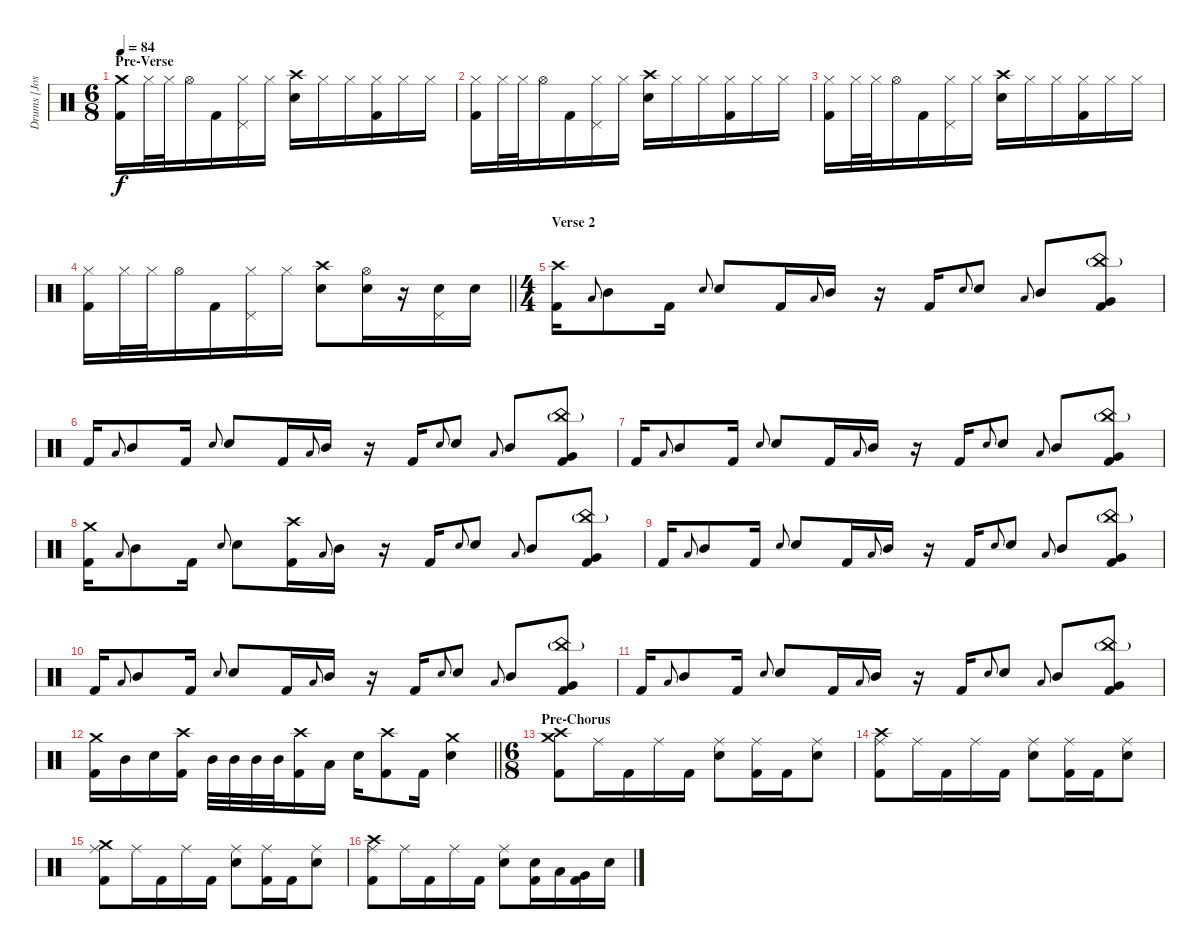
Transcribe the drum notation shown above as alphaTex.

\track ("Drums [Josh Freese]" "Drums [Jos") {instrument percussion}
\staff {score}
\articulation defaults
\ts (6 8)
\section ("" "Pre-Verse")
\tempo 84
\clef neutral
\ks c
("Crash medium (hit)" "Kick (hit) 2").16{dy f} "Hi-Hat (closed)".32 "Hi-Hat (closed)".32 "Hi-Hat (open)".16 "Kick (hit) 2".16 ("Pedal Hi-Hat (hit)" "Hi-Hat (closed)").16 "Hi-Hat (closed)".16 ("Crash high (hit)" "Electric Snare (hit)").16 "Hi-Hat (closed)".16 "Hi-Hat (closed)".16 ("Hi-Hat (closed)" "Kick (hit) 2").16 "Hi-Hat (closed)".16 "Hi-Hat (closed)".16 |
("Hi-Hat (closed)" "Kick (hit) 2").16 "Hi-Hat (closed)".32 "Hi-Hat (closed)".32 "Hi-Hat (open)".16 "Kick (hit) 2".16 ("Pedal Hi-Hat (hit)" "Hi-Hat (closed)").16 "Hi-Hat (closed)".16 ("Crash high (hit)" "Electric Snare (hit)").16 "Hi-Hat (closed)".16 "Hi-Hat (closed)".16 ("Hi-Hat (closed)" "Kick (hit) 2").16 "Hi-Hat (closed)".16 "Hi-Hat (closed)".16 |
("Hi-Hat (closed)" "Kick (hit) 2").16 "Hi-Hat (closed)".32 "Hi-Hat (closed)".32 "Hi-Hat (open)".16 "Kick (hit) 2".16 ("Pedal Hi-Hat (hit)" "Hi-Hat (closed)").16 "Hi-Hat (closed)".16 ("Crash high (hit)" "Electric Snare (hit)").16 "Hi-Hat (closed)".16 "Hi-Hat (closed)".16 ("Hi-Hat (closed)" "Kick (hit) 2").16 "Hi-Hat (closed)".16 "Hi-Hat (closed)".16 |
\barLineRight lightlight
("Hi-Hat (closed)" "Kick (hit) 2").16 "Hi-Hat (closed)".32 "Hi-Hat (closed)".32 "Hi-Hat (open)".16 "Kick (hit) 2".16 ("Pedal Hi-Hat (hit)" "Hi-Hat (closed)").16 "Hi-Hat (closed)".16 ("Crash high (hit)" "Electric Snare (hit)").8 ("Hi-Hat (open)" "Electric Snare (hit)").16 r.16 ("Pedal Hi-Hat (hit)" "Electric Snare (hit)").16 "Electric Snare (hit)".16 |
\ts (4 4)
\section ("" "Verse 2")
("Crash high (hit)" "Kick (hit) 2").16 "Low Tom (hit)".8{gr onbeat} "Mid Tom (hit)".8 "Kick (hit) 2".16 "Electric Snare (hit)".8{gr onbeat} "Electric Snare (hit)".8 "Kick (hit) 2".16 "Low Tom (hit)".8{gr onbeat} "Mid Tom (hit)".16 r.16 "Kick (hit) 2".16 "Electric Snare (hit)".8{gr onbeat} "Electric Snare (hit)".8 "Low Tom (hit)".8{gr onbeat} "Mid Tom (hit)".8 ("China (hit)"{g} "Very Low Tom (hit)" "Kick (hit) 2").8 |
"Kick (hit) 2".16 "Low Tom (hit)".8{gr onbeat} "Mid Tom (hit)".8 "Kick (hit) 2".16 "Electric Snare (hit)".8{gr onbeat} "Electric Snare (hit)".8 "Kick (hit) 2".16 "Low Tom (hit)".8{gr onbeat} "Mid Tom (hit)".16 r.16 "Kick (hit) 2".16 "Electric Snare (hit)".8{gr onbeat} "Electric Snare (hit)".8 "Low Tom (hit)".8{gr onbeat} "Mid Tom (hit)".8 ("China (hit)"{g} "Very Low Tom (hit)" "Kick (hit) 2").8 |
"Kick (hit) 2".16 "Low Tom (hit)".8{gr onbeat} "Mid Tom (hit)".8 "Kick (hit) 2".16 "Electric Snare (hit)".8{gr onbeat} "Electric Snare (hit)".8 "Kick (hit) 2".16 "Low Tom (hit)".8{gr onbeat} "Mid Tom (hit)".16 r.16 "Kick (hit) 2".16 "Electric Snare (hit)".8{gr onbeat} "Electric Snare (hit)".8 "Low Tom (hit)".8{gr onbeat} "Mid Tom (hit)".8 ("China (hit)"{g} "Very Low Tom (hit)" "Kick (hit) 2").8 |
("Crash medium (hit)" "Kick (hit) 2").16 "Low Tom (hit)".8{gr onbeat} "Mid Tom (hit)".8 "Kick (hit) 2".16 "Electric Snare (hit)".8{gr onbeat} "Electric Snare (hit)".8 ("Crash high (hit)" "Kick (hit) 2").16 "Low Tom (hit)".8{gr onbeat} "Mid Tom (hit)".16 r.16 "Kick (hit) 2".16 "Electric Snare (hit)".8{gr onbeat} "Electric Snare (hit)".8 "Low Tom (hit)".8{gr onbeat} "Mid Tom (hit)".8 ("China (hit)"{g} "Very Low Tom (hit)" "Kick (hit) 2").8 |
"Kick (hit) 2".16 "Low Tom (hit)".8{gr onbeat} "Mid Tom (hit)".8 "Kick (hit) 2".16 "Electric Snare (hit)".8{gr onbeat} "Electric Snare (hit)".8 "Kick (hit) 2".16 "Low Tom (hit)".8{gr onbeat} "Mid Tom (hit)".16 r.16 "Kick (hit) 2".16 "Electric Snare (hit)".8{gr onbeat} "Electric Snare (hit)".8 "Low Tom (hit)".8{gr onbeat} "Mid Tom (hit)".8 ("China (hit)"{g} "Very Low Tom (hit)" "Kick (hit) 2").8 |
"Kick (hit) 2".16 "Low Tom (hit)".8{gr onbeat} "Mid Tom (hit)".8 "Kick (hit) 2".16 "Electric Snare (hit)".8{gr onbeat} "Electric Snare (hit)".8 "Kick (hit) 2".16 "Low Tom (hit)".8{gr onbeat} "Mid Tom (hit)".16 r.16 "Kick (hit) 2".16 "Electric Snare (hit)".8{gr onbeat} "Electric Snare (hit)".8 "Low Tom (hit)".8{gr onbeat} "Mid Tom (hit)".8 ("China (hit)"{g} "Very Low Tom (hit)" "Kick (hit) 2").8 |
"Kick (hit) 2".16 "Low Tom (hit)".8{gr onbeat} "Mid Tom (hit)".8 "Kick (hit) 2".16 "Electric Snare (hit)".8{gr onbeat} "Electric Snare (hit)".8 "Kick (hit) 2".16 "Low Tom (hit)".8{gr onbeat} "Mid Tom (hit)".16 r.16 "Kick (hit) 2".16 "Electric Snare (hit)".8{gr onbeat} "Electric Snare (hit)".8 "Low Tom (hit)".8{gr onbeat} "Mid Tom (hit)".8 ("China (hit)"{g} "Very Low Tom (hit)" "Kick (hit) 2").8 |
\barLineRight lightlight
("Crash medium (hit)" "Kick (hit) 2").16 "Mid Tom (hit)".16 "Electric Snare (hit)".16 ("Crash high (hit)" "Kick (hit) 2").16 "Mid Tom (hit)".32 "Mid Tom (hit)".32 "Mid Tom (hit)".32 "Mid Tom (hit)".32 ("Crash high (hit)" "Kick (hit) 2").16 "Low Tom (hit)".16 "Electric Snare (hit)".16 ("Crash high (hit)" "Kick (hit) 2").8 "Kick (hit) 2".16 ("Crash medium (hit)" "Electric Snare (hit)").4 |
\ts (6 8)
\section ("" "Pre-Chorus")
("Crash medium (hit)" "Crash high (hit)" "Kick (hit) 2").8 "Ride (middle)".16 "Kick (hit) 2".16 "Ride (middle)".16 "Kick (hit) 2".16 ("Ride (middle)" "Electric Snare (hit)").8 ("Ride (middle)" "Kick (hit) 2").16 "Kick (hit) 2".16 ("Ride (middle)" "Electric Snare (hit)").8 |
("Crash high (hit)" "Ride (middle)" "Kick (hit) 2").8 "Ride (middle)".16 "Kick (hit) 2".16 "Ride (middle)".16 "Kick (hit) 2".16 ("Ride (middle)" "Electric Snare (hit)").8 ("Ride (middle)" "Kick (hit) 2").16 "Kick (hit) 2".16 ("Ride (middle)" "Electric Snare (hit)").8 |
("Crash medium (hit)" "Ride (middle)" "Kick (hit) 2").8 "Ride (middle)".16 "Kick (hit) 2".16 "Ride (middle)".16 "Kick (hit) 2".16 ("Ride (middle)" "Electric Snare (hit)").8 ("Ride (middle)" "Kick (hit) 2").16 "Kick (hit) 2".16 ("Ride (middle)" "Electric Snare (hit)").8 |
("Crash high (hit)" "Ride (middle)" "Kick (hit) 2").8 "Ride (middle)".16 "Kick (hit) 2".16 "Ride (middle)".16 "Kick (hit) 2".16 ("Ride (middle)" "Electric Snare (hit)").8 ("Electric Snare (hit)" "Kick (hit) 2").16 "Low Tom (hit)".16 ("Very Low Tom (hit)" "Kick (hit) 2").16 "Electric Snare (hit)".16
